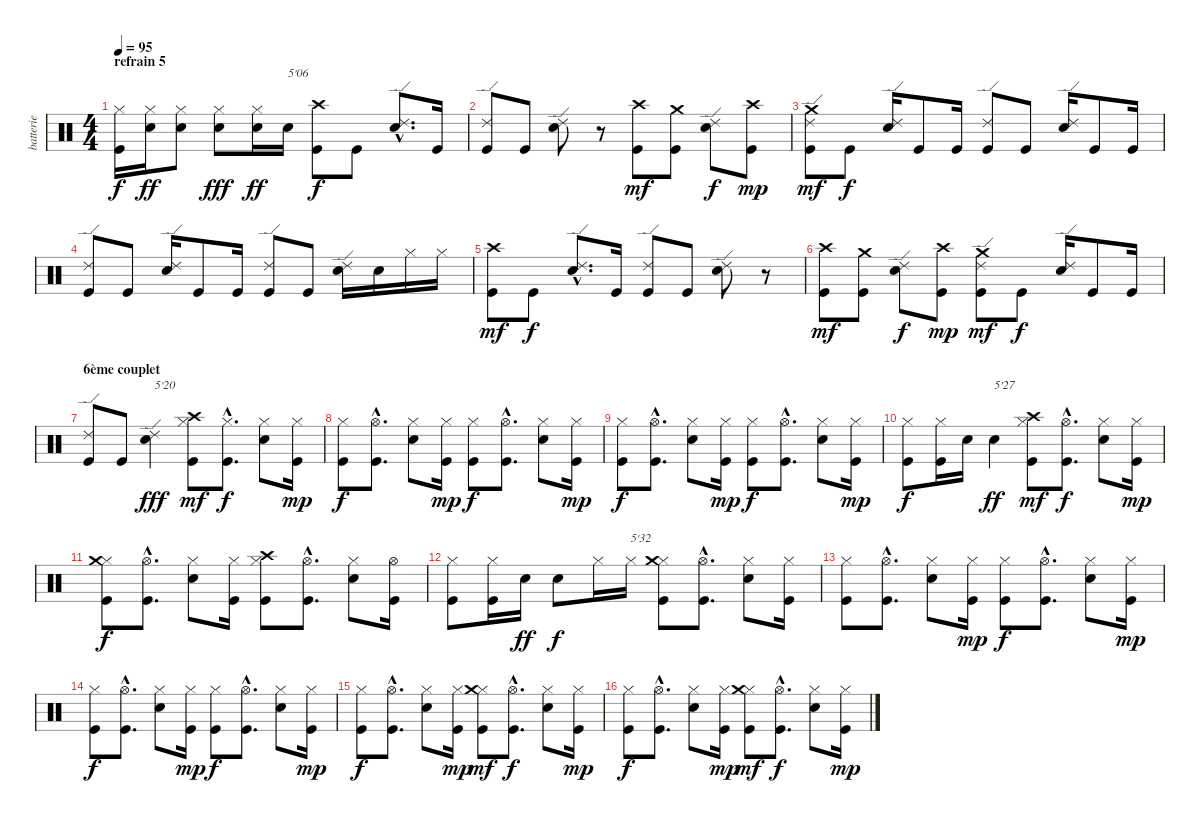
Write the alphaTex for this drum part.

\track ("batterie" "batterie") {instrument percussion}
\staff {score}
\articulation defaults
\ts (4 4)
\section ("" "refrain 5")
\tempo 95
\clef neutral
\ks c
("Hi-Hat (closed)" "Kick (hit)").16{dy f} ("Hi-Hat (closed)" "Electric Snare (hit)").16{dy ff} ("Hi-Hat (closed)" "Electric Snare (hit)").8 ("Hi-Hat (closed)" "Electric Snare (hit)").8{dy fff} ("Hi-Hat (closed)" "Electric Snare (hit)").16{dy ff} "Electric Snare (hit)".16{txt "5'06"} ("Kick (hit)" "Crash high (hit)").8{dy f} "Kick (hit)".8 ("Ride (edge) 2"{hac} "Electric Snare (hit)"{hac}).8{d} "Kick (hit)".16 |
("Ride (edge) 2" "Kick (hit)").8 "Kick (hit)".8 ("Ride (edge) 2" "Electric Snare (hit)").8 r.8 ("Kick (hit)" "Crash high (hit)").8{dy mf} ("Kick (hit)" "Crash medium (hit)").8 ("Ride (edge) 2" "Electric Snare (hit)").8{dy f} ("Kick (hit)" "Crash high (hit)").8{dy mp} |
("Ride (edge) 2" "Kick (hit)" "Crash medium (hit)").8{dy mf} "Kick (hit)".8{dy f} ("Ride (edge) 2" "Electric Snare (hit)").16 "Kick (hit)".8 "Kick (hit)".16 ("Ride (edge) 2" "Kick (hit)").8 "Kick (hit)".8 ("Ride (edge) 2" "Electric Snare (hit)").16 "Kick (hit)".8 "Kick (hit)".16 |
("Ride (edge) 2" "Kick (hit)").8 "Kick (hit)".8 ("Ride (edge) 2" "Electric Snare (hit)").16 "Kick (hit)".8 "Kick (hit)".16 ("Ride (edge) 2" "Kick (hit)").8 "Kick (hit)".8 ("Ride (edge) 2" "Electric Snare (hit)").16 "Electric Snare (hit)".16 "Hi-Hat (closed)".16 "Hi-Hat (closed)".16 |
("Kick (hit)" "Crash high (hit)").8{dy mf} "Kick (hit)".8{dy f} ("Ride (edge) 2"{hac} "Electric Snare (hit)"{hac}).8{d} "Kick (hit)".16 ("Ride (edge) 2" "Kick (hit)").8 "Kick (hit)".8 ("Ride (edge) 2" "Electric Snare (hit)").8 r.8 |
("Kick (hit)" "Crash high (hit)").8{dy mf} ("Kick (hit)" "Crash medium (hit)").8 ("Ride (edge) 2" "Electric Snare (hit)").8{dy f} ("Kick (hit)" "Crash high (hit)").8{dy mp} ("Ride (edge) 2" "Kick (hit)" "Crash medium (hit)").8{dy mf} "Kick (hit)".8{dy f} ("Ride (edge) 2" "Electric Snare (hit)").16 "Kick (hit)".8 "Kick (hit)".16 |
\section ("" "6ème couplet")
("Ride (edge) 2" "Kick (hit)").8 "Kick (hit)".8 ("Ride (edge) 2" "Electric Snare (hit)").4{txt "5'20" dy fff} ("Hi-Hat (closed)" "Kick (hit)" "Crash high (hit)").8{dy mf} ("Hi-Hat (closed)"{hac} "Kick (hit)"{hac}).8{d dy f} ("Hi-Hat (closed)" "Electric Snare (hit)").8 ("Hi-Hat (closed)" "Kick (hit)").16{dy mp} |
("Hi-Hat (closed)" "Kick (hit)").8{dy f} ("Hi-Hat (open)"{hac} "Kick (hit)"{hac}).8{d} ("Hi-Hat (closed)" "Electric Snare (hit)").8 ("Hi-Hat (closed)" "Kick (hit)").16{dy mp} ("Hi-Hat (closed)" "Kick (hit)").8{dy f} ("Hi-Hat (open)"{hac} "Kick (hit)"{hac}).8{d} ("Hi-Hat (closed)" "Electric Snare (hit)").8 ("Hi-Hat (closed)" "Kick (hit)").16{dy mp} |
("Hi-Hat (closed)" "Kick (hit)").8{dy f} ("Hi-Hat (open)"{hac} "Kick (hit)"{hac}).8{d} ("Hi-Hat (closed)" "Electric Snare (hit)").8 ("Hi-Hat (closed)" "Kick (hit)").16{dy mp} ("Hi-Hat (closed)" "Kick (hit)").8{dy f} ("Hi-Hat (open)"{hac} "Kick (hit)"{hac}).8{d} ("Hi-Hat (closed)" "Electric Snare (hit)").8 ("Hi-Hat (closed)" "Kick (hit)").16{dy mp} |
("Hi-Hat (closed)" "Kick (hit)").8{dy f} ("Hi-Hat (closed)" "Kick (hit)").16 "Electric Snare (hit)".16 "Electric Snare (hit)".4{txt "5'27" dy ff} ("Hi-Hat (closed)" "Kick (hit)" "Crash high (hit)").8{dy mf} ("Hi-Hat (open)"{hac} "Kick (hit)"{hac}).8{d dy f} ("Hi-Hat (closed)" "Electric Snare (hit)").8 ("Hi-Hat (closed)" "Kick (hit)").16{dy mp} |
("Hi-Hat (closed)" "Kick (hit)" "Crash medium (hit)").8{dy f} ("Hi-Hat (open)"{hac} "Kick (hit)"{hac}).8{d} ("Hi-Hat (closed)" "Electric Snare (hit)").8 ("Hi-Hat (closed)" "Kick (hit)").16 ("Hi-Hat (closed)" "Kick (hit)" "Crash high (hit)").8 ("Hi-Hat (open)"{hac} "Kick (hit)"{hac}).8{d} ("Hi-Hat (closed)" "Electric Snare (hit)").8 ("Hi-Hat (open)" "Kick (hit)").16 |
("Hi-Hat (closed)" "Kick (hit)").8 ("Hi-Hat (closed)" "Kick (hit)").16 "Electric Snare (hit)".16{dy ff} "Electric Snare (hit)".8{dy f} "Hi-Hat (closed)".16 "Hi-Hat (closed)".16{txt "5'32"} ("Hi-Hat (closed)" "Kick (hit)" "Crash medium (hit)").8 ("Hi-Hat (open)"{hac} "Kick (hit)"{hac}).8{d} ("Hi-Hat (closed)" "Electric Snare (hit)").8 ("Hi-Hat (closed)" "Kick (hit)").16 |
("Hi-Hat (closed)" "Kick (hit)").8 ("Hi-Hat (open)"{hac} "Kick (hit)"{hac}).8{d} ("Hi-Hat (closed)" "Electric Snare (hit)").8 ("Hi-Hat (closed)" "Kick (hit)").16{dy mp} ("Hi-Hat (closed)" "Kick (hit)").8{dy f} ("Hi-Hat (open)"{hac} "Kick (hit)"{hac}).8{d} ("Hi-Hat (closed)" "Electric Snare (hit)").8 ("Hi-Hat (closed)" "Kick (hit)").16{dy mp} |
("Hi-Hat (closed)" "Kick (hit)").8{dy f} ("Hi-Hat (open)"{hac} "Kick (hit)"{hac}).8{d} ("Hi-Hat (closed)" "Electric Snare (hit)").8 ("Hi-Hat (closed)" "Kick (hit)").16{dy mp} ("Hi-Hat (closed)" "Kick (hit)").8{dy f} ("Hi-Hat (open)"{hac} "Kick (hit)"{hac}).8{d} ("Hi-Hat (closed)" "Electric Snare (hit)").8 ("Hi-Hat (closed)" "Kick (hit)").16{dy mp} |
("Hi-Hat (closed)" "Kick (hit)").8{dy f} ("Hi-Hat (open)"{hac} "Kick (hit)"{hac}).8{d} ("Hi-Hat (closed)" "Electric Snare (hit)").8 ("Hi-Hat (closed)" "Kick (hit)").16{dy mp} ("Hi-Hat (closed)" "Kick (hit)" "Crash medium (hit)").8{dy mf} ("Hi-Hat (open)"{hac} "Kick (hit)"{hac}).8{d dy f} ("Hi-Hat (closed)" "Electric Snare (hit)").8 ("Hi-Hat (closed)" "Kick (hit)").16{dy mp} |
("Hi-Hat (closed)" "Kick (hit)").8{dy f} ("Hi-Hat (open)"{hac} "Kick (hit)"{hac}).8{d} ("Hi-Hat (closed)" "Electric Snare (hit)").8 ("Hi-Hat (closed)" "Kick (hit)").16{dy mp} ("Hi-Hat (closed)" "Kick (hit)" "Crash medium (hit)").8{dy mf} ("Hi-Hat (open)"{hac} "Kick (hit)"{hac}).8{d dy f} ("Hi-Hat (closed)" "Electric Snare (hit)").8 ("Hi-Hat (closed)" "Kick (hit)").16{dy mp}
